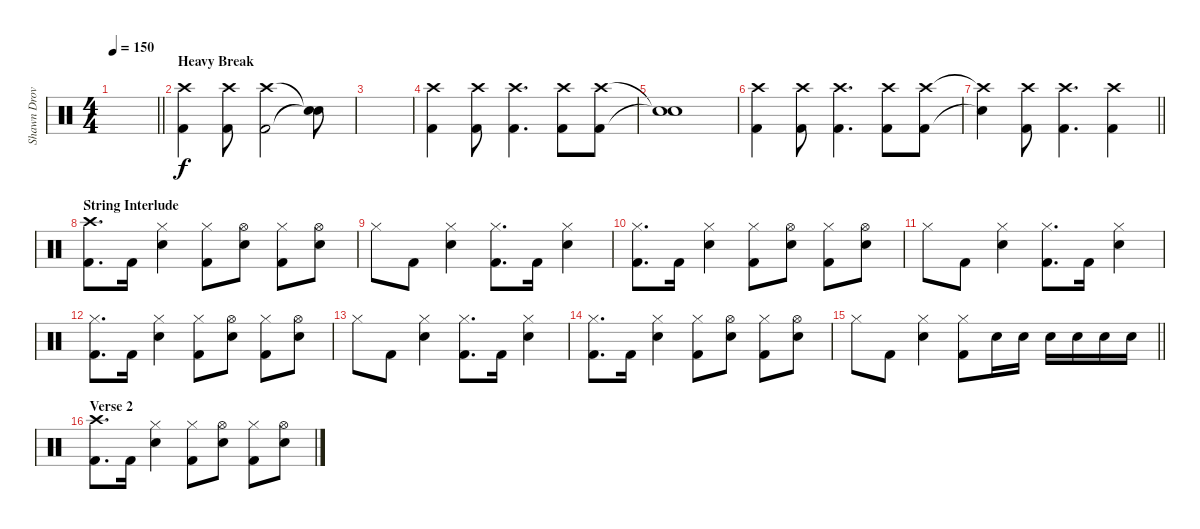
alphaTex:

\track ("Shawn Drover" "Shawn Drov") {instrument percussion}
\staff {score}
\articulation defaults
\ts (4 4)
\tempo 150
\clef neutral
\barLineRight lightlight
\ks c
|
\section ("" "Heavy Break")
("Crash high (hit)" "Kick (hit) 2").4 ("Crash high (hit)" "Kick (hit) 2").8 ("Crash high (hit)" "Kick (hit) 2").2 ("Snare (hit)"{t} "Snare (hit)"{t}).8 |
|
("Crash high (hit)" "Kick (hit) 2").4 ("Crash high (hit)" "Kick (hit) 2").8 ("Crash high (hit)" "Kick (hit) 2").4{d} ("Crash high (hit)" "Kick (hit) 2").8 ("Crash high (hit)" "Kick (hit) 2").8 |
("Snare (hit)"{t} "Snare (hit)"{t}).1 |
("Crash high (hit)" "Kick (hit) 2").4 ("Crash high (hit)" "Kick (hit) 2").8 ("Crash high (hit)" "Kick (hit) 2").4{d} ("Crash high (hit)" "Kick (hit) 2").8 ("Crash high (hit)" "Kick (hit) 2").8 |
\barLineRight lightlight
("Crash high (hit)"{t} "Snare (hit)"{t}).4 ("Crash high (hit)" "Kick (hit) 2").8 ("Crash high (hit)" "Kick (hit) 2").4{d} ("Crash high (hit)" "Kick (hit) 2").4 |
\section ("" "String Interlude")
("Crash high (hit)" "Kick (hit) 2").8{d} "Kick (hit) 2".16 ("Hi-Hat (closed)" "Snare (hit) 2").4 ("Hi-Hat (closed)" "Kick (hit) 2").8 ("Hi-Hat (open)" "Snare (hit) 2").8 ("Hi-Hat (closed)" "Kick (hit) 2").8 ("Hi-Hat (open)" "Snare (hit) 2").8 |
"Hi-Hat (closed)".8 "Kick (hit) 2".8 ("Hi-Hat (closed)" "Snare (hit) 2").4 ("Hi-Hat (closed)" "Kick (hit) 2").8{d} "Kick (hit) 2".16 ("Hi-Hat (closed)" "Snare (hit) 2").4 |
("Hi-Hat (closed)" "Kick (hit) 2").8{d} "Kick (hit) 2".16 ("Hi-Hat (closed)" "Snare (hit) 2").4 ("Hi-Hat (closed)" "Kick (hit) 2").8 ("Hi-Hat (open)" "Snare (hit) 2").8 ("Hi-Hat (closed)" "Kick (hit) 2").8 ("Hi-Hat (open)" "Snare (hit) 2").8 |
"Hi-Hat (closed)".8 "Kick (hit) 2".8 ("Hi-Hat (closed)" "Snare (hit) 2").4 ("Hi-Hat (closed)" "Kick (hit) 2").8{d} "Kick (hit) 2".16 ("Hi-Hat (closed)" "Snare (hit) 2").4 |
("Hi-Hat (closed)" "Kick (hit) 2").8{d} "Kick (hit) 2".16 ("Hi-Hat (closed)" "Snare (hit) 2").4 ("Hi-Hat (closed)" "Kick (hit) 2").8 ("Hi-Hat (open)" "Snare (hit) 2").8 ("Hi-Hat (closed)" "Kick (hit) 2").8 ("Hi-Hat (open)" "Snare (hit) 2").8 |
"Hi-Hat (closed)".8 "Kick (hit) 2".8 ("Hi-Hat (closed)" "Snare (hit) 2").4 ("Hi-Hat (closed)" "Kick (hit) 2").8{d} "Kick (hit) 2".16 ("Hi-Hat (closed)" "Snare (hit) 2").4 |
("Hi-Hat (closed)" "Kick (hit) 2").8{d} "Kick (hit) 2".16 ("Hi-Hat (closed)" "Snare (hit) 2").4 ("Hi-Hat (closed)" "Kick (hit) 2").8 ("Hi-Hat (open)" "Snare (hit) 2").8 ("Hi-Hat (closed)" "Kick (hit) 2").8 ("Hi-Hat (open)" "Snare (hit) 2").8 |
\barLineRight lightlight "Hi-Hat (closed)".8 "Kick (hit) 2".8
("Hi-Hat (closed)" "Snare (hit) 2").4 ("Hi-Hat (closed)" "Kick (hit) 2").8 "Snare (hit) 2".16 "Snare (hit) 2".16 "Snare (hit) 2".16 "Snare (hit) 2".16 "Snare (hit) 2".16 "Snare (hit) 2".16 |
\section ("" "Verse 2")
("Crash high (hit)" "Kick (hit) 2").8{d} "Kick (hit) 2".16 ("Hi-Hat (closed)" "Snare (hit) 2").4 ("Hi-Hat (closed)" "Kick (hit) 2").8 ("Hi-Hat (open)" "Snare (hit) 2").8 ("Hi-Hat (closed)" "Kick (hit) 2").8 ("Hi-Hat (open)" "Snare (hit) 2").8
